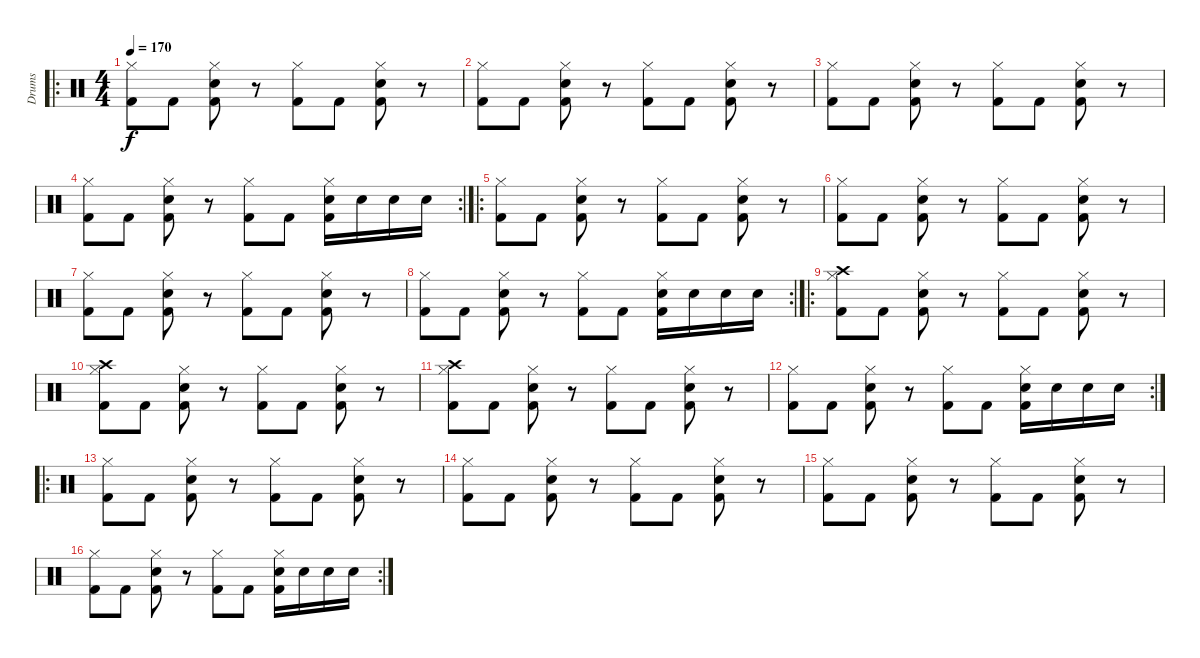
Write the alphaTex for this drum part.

\track ("Drums" "Drums") {instrument percussion}
\staff {score}
\articulation defaults
\ro
\ts (4 4)
\tempo 170
\clef neutral
\ks c
("Hi-Hat (closed)" "Kick (hit) 2").8{dy f} "Kick (hit) 2".8 ("Hi-Hat (closed)" "Snare (hit) 2" "Kick (hit) 2").8 r.8 ("Hi-Hat (closed)" "Kick (hit) 2").8 "Kick (hit) 2".8 ("Hi-Hat (closed)" "Snare (hit) 2" "Kick (hit) 2").8 r.8 |
("Hi-Hat (closed)" "Kick (hit) 2").8 "Kick (hit) 2".8 ("Hi-Hat (closed)" "Snare (hit) 2" "Kick (hit) 2").8 r.8 ("Hi-Hat (closed)" "Kick (hit) 2").8 "Kick (hit) 2".8 ("Hi-Hat (closed)" "Snare (hit) 2" "Kick (hit) 2").8 r.8 |
("Hi-Hat (closed)" "Kick (hit) 2").8 "Kick (hit) 2".8 ("Hi-Hat (closed)" "Snare (hit) 2" "Kick (hit) 2").8 r.8 ("Hi-Hat (closed)" "Kick (hit) 2").8 "Kick (hit) 2".8 ("Hi-Hat (closed)" "Snare (hit) 2" "Kick (hit) 2").8 r.8 |
\rc 2
("Hi-Hat (closed)" "Kick (hit) 2").8 "Kick (hit) 2".8 ("Hi-Hat (closed)" "Snare (hit) 2" "Kick (hit) 2").8 r.8 ("Hi-Hat (closed)" "Kick (hit) 2").8 "Kick (hit) 2".8 ("Hi-Hat (closed)" "Snare (hit) 2" "Kick (hit) 2").16 "Snare (hit) 2".16 "Snare (hit) 2".16 "Snare (hit) 2".16 |
\ro
("Hi-Hat (closed)" "Kick (hit) 2").8 "Kick (hit) 2".8 ("Hi-Hat (closed)" "Snare (hit) 2" "Kick (hit) 2").8 r.8 ("Hi-Hat (closed)" "Kick (hit) 2").8 "Kick (hit) 2".8 ("Hi-Hat (closed)" "Snare (hit) 2" "Kick (hit) 2").8 r.8 |
("Hi-Hat (closed)" "Kick (hit) 2").8 "Kick (hit) 2".8 ("Hi-Hat (closed)" "Snare (hit) 2" "Kick (hit) 2").8 r.8 ("Hi-Hat (closed)" "Kick (hit) 2").8 "Kick (hit) 2".8 ("Hi-Hat (closed)" "Snare (hit) 2" "Kick (hit) 2").8 r.8 |
("Hi-Hat (closed)" "Kick (hit) 2").8 "Kick (hit) 2".8 ("Hi-Hat (closed)" "Snare (hit) 2" "Kick (hit) 2").8 r.8 ("Hi-Hat (closed)" "Kick (hit) 2").8 "Kick (hit) 2".8 ("Hi-Hat (closed)" "Snare (hit) 2" "Kick (hit) 2").8 r.8 |
\rc 2
("Hi-Hat (closed)" "Kick (hit) 2").8 "Kick (hit) 2".8 ("Hi-Hat (closed)" "Snare (hit) 2" "Kick (hit) 2").8 r.8 ("Hi-Hat (closed)" "Kick (hit) 2").8 "Kick (hit) 2".8 ("Hi-Hat (closed)" "Snare (hit) 2" "Kick (hit) 2").16 "Snare (hit) 2".16 "Snare (hit) 2".16 "Snare (hit) 2".16 |
\ro
("Hi-Hat (closed)" "Crash high (hit)" "Kick (hit) 2").8 "Kick (hit) 2".8 ("Hi-Hat (closed)" "Snare (hit) 2" "Kick (hit) 2").8 r.8 ("Hi-Hat (closed)" "Kick (hit) 2").8 "Kick (hit) 2".8 ("Hi-Hat (closed)" "Snare (hit) 2" "Kick (hit) 2").8 r.8 |
("Hi-Hat (closed)" "Crash high (hit)" "Kick (hit) 2").8 "Kick (hit) 2".8 ("Hi-Hat (closed)" "Snare (hit) 2" "Kick (hit) 2").8 r.8 ("Hi-Hat (closed)" "Kick (hit) 2").8 "Kick (hit) 2".8 ("Hi-Hat (closed)" "Snare (hit) 2" "Kick (hit) 2").8 r.8 |
("Hi-Hat (closed)" "Crash high (hit)" "Kick (hit) 2").8 "Kick (hit) 2".8 ("Hi-Hat (closed)" "Snare (hit) 2" "Kick (hit) 2").8 r.8 ("Hi-Hat (closed)" "Kick (hit) 2").8 "Kick (hit) 2".8 ("Hi-Hat (closed)" "Snare (hit) 2" "Kick (hit) 2").8 r.8 |
\rc 2
("Hi-Hat (closed)" "Kick (hit) 2").8 "Kick (hit) 2".8 ("Hi-Hat (closed)" "Snare (hit) 2" "Kick (hit) 2").8 r.8 ("Hi-Hat (closed)" "Kick (hit) 2").8 "Kick (hit) 2".8 ("Hi-Hat (closed)" "Snare (hit) 2" "Kick (hit) 2").16 "Snare (hit) 2".16 "Snare (hit) 2".16 "Snare (hit) 2".16 |
\ro
("Hi-Hat (closed)" "Kick (hit) 2").8 "Kick (hit) 2".8 ("Hi-Hat (closed)" "Snare (hit) 2" "Kick (hit) 2").8 r.8 ("Hi-Hat (closed)" "Kick (hit) 2").8 "Kick (hit) 2".8 ("Hi-Hat (closed)" "Snare (hit) 2" "Kick (hit) 2").8 r.8 |
("Hi-Hat (closed)" "Kick (hit) 2").8 "Kick (hit) 2".8 ("Hi-Hat (closed)" "Snare (hit) 2" "Kick (hit) 2").8 r.8 ("Hi-Hat (closed)" "Kick (hit) 2").8 "Kick (hit) 2".8 ("Hi-Hat (closed)" "Snare (hit) 2" "Kick (hit) 2").8 r.8 |
("Hi-Hat (closed)" "Kick (hit) 2").8 "Kick (hit) 2".8 ("Hi-Hat (closed)" "Snare (hit) 2" "Kick (hit) 2").8 r.8 ("Hi-Hat (closed)" "Kick (hit) 2").8 "Kick (hit) 2".8 ("Hi-Hat (closed)" "Snare (hit) 2" "Kick (hit) 2").8 r.8 |
\rc 2
("Hi-Hat (closed)" "Kick (hit) 2").8 "Kick (hit) 2".8 ("Hi-Hat (closed)" "Snare (hit) 2" "Kick (hit) 2").8 r.8 ("Hi-Hat (closed)" "Kick (hit) 2").8 "Kick (hit) 2".8 ("Hi-Hat (closed)" "Snare (hit) 2" "Kick (hit) 2").16 "Snare (hit) 2".16 "Snare (hit) 2".16 "Snare (hit) 2".16
